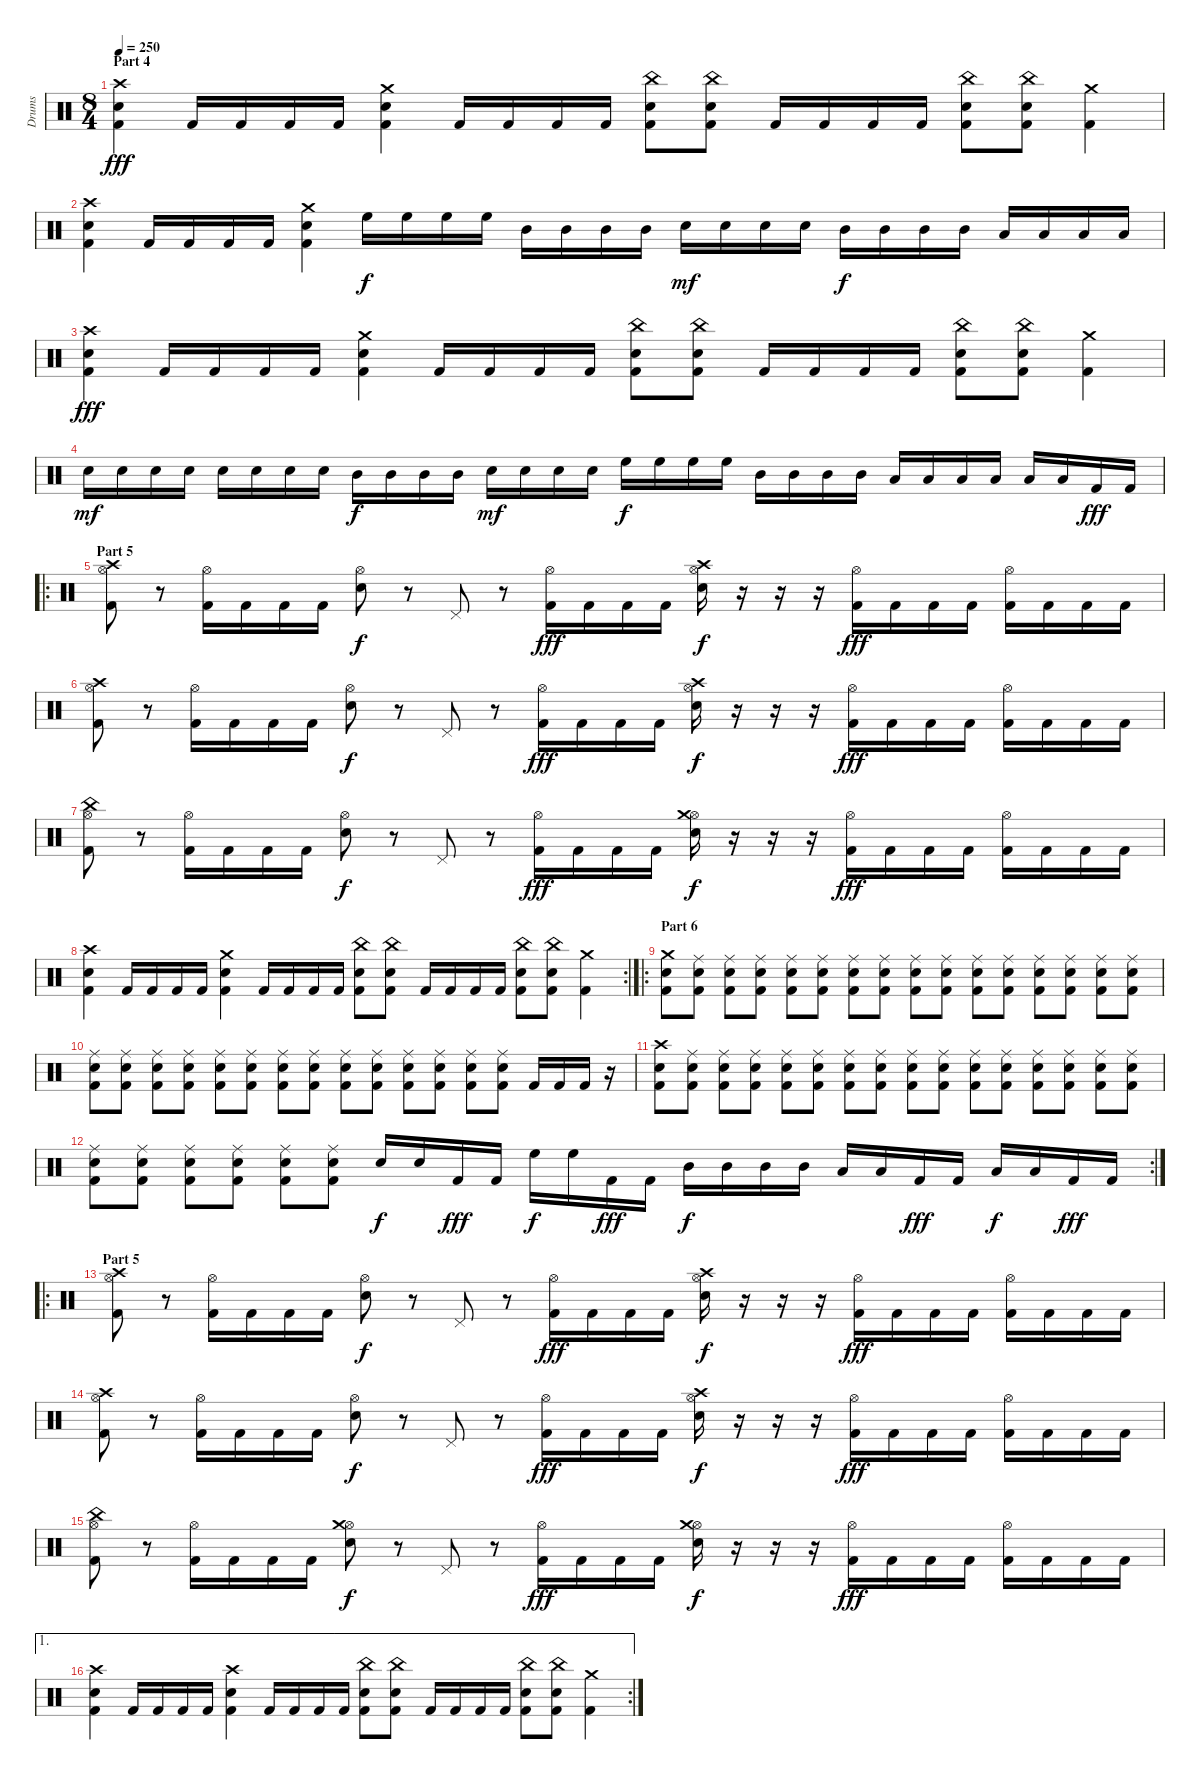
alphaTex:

\track ("Drums" "Drums") {instrument percussion}
\staff {score}
\articulation defaults
\ts (8 4)
\section ("" "Part 4")
\tempo 250
\clef neutral
\ks c
("Crash high (hit)" "Electric Snare (hit)" "Kick (hit) 2").4{dy fff} "Kick (hit) 2".16 "Kick (hit) 2".16 "Kick (hit) 2".16 "Kick (hit) 2".16 ("Crash medium (hit)" "Electric Snare (hit)" "Kick (hit) 2").4 "Kick (hit) 2".16 "Kick (hit) 2".16 "Kick (hit) 2".16 "Kick (hit) 2".16 ("China (hit)" "Electric Snare (hit)" "Kick (hit) 2").8 ("China (hit)" "Electric Snare (hit)" "Kick (hit) 2").8 "Kick (hit) 2".16 "Kick (hit) 2".16 "Kick (hit) 2".16 "Kick (hit) 2".16 ("China (hit)" "Electric Snare (hit)" "Kick (hit) 2").8 ("China (hit)" "Electric Snare (hit)" "Kick (hit) 2").8 ("Crash medium (hit)" "Kick (hit) 2").4 |
("Crash high (hit)" "Electric Snare (hit)" "Kick (hit) 2").4 "Kick (hit) 2".16 "Kick (hit) 2".16 "Kick (hit) 2".16 "Kick (hit) 2".16 ("Crash medium (hit)" "Electric Snare (hit)" "Kick (hit) 2").4 "High Floor Tom (hit)".16{dy f} "High Floor Tom (hit)".16 "High Floor Tom (hit)".16 "High Floor Tom (hit)".16 "Mid Tom (hit)".16 "Mid Tom (hit)".16 "Mid Tom (hit)".16 "Mid Tom (hit)".16 "Electric Snare (hit)".16{dy mf} "Electric Snare (hit)".16 "Electric Snare (hit)".16 "Electric Snare (hit)".16 "Mid Tom (hit)".16{dy f} "Mid Tom (hit)".16 "Mid Tom (hit)".16 "Mid Tom (hit)".16 "Low Tom (hit)".16 "Low Tom (hit)".16 "Low Tom (hit)".16 "Low Tom (hit)".16 |
("Crash high (hit)" "Electric Snare (hit)" "Kick (hit) 2").4{dy fff} "Kick (hit) 2".16 "Kick (hit) 2".16 "Kick (hit) 2".16 "Kick (hit) 2".16 ("Crash medium (hit)" "Electric Snare (hit)" "Kick (hit) 2").4 "Kick (hit) 2".16 "Kick (hit) 2".16 "Kick (hit) 2".16 "Kick (hit) 2".16 ("China (hit)" "Electric Snare (hit)" "Kick (hit) 2").8 ("China (hit)" "Electric Snare (hit)" "Kick (hit) 2").8 "Kick (hit) 2".16 "Kick (hit) 2".16 "Kick (hit) 2".16 "Kick (hit) 2".16 ("China (hit)" "Electric Snare (hit)" "Kick (hit) 2").8 ("China (hit)" "Electric Snare (hit)" "Kick (hit) 2").8 ("Crash medium (hit)" "Kick (hit) 2").4 |
"Electric Snare (hit)".16{dy mf} "Electric Snare (hit)".16 "Electric Snare (hit)".16 "Electric Snare (hit)".16 "Electric Snare (hit)".16 "Electric Snare (hit)".16 "Electric Snare (hit)".16 "Electric Snare (hit)".16 "Mid Tom (hit)".16{dy f} "Mid Tom (hit)".16 "Mid Tom (hit)".16 "Mid Tom (hit)".16 "Electric Snare (hit)".16{dy mf} "Electric Snare (hit)".16 "Electric Snare (hit)".16 "Electric Snare (hit)".16 "High Floor Tom (hit)".16{dy f} "High Floor Tom (hit)".16 "High Floor Tom (hit)".16 "High Floor Tom (hit)".16 "Mid Tom (hit)".16 "Mid Tom (hit)".16 "Mid Tom (hit)".16 "Mid Tom (hit)".16 "Low Tom (hit)".16 "Low Tom (hit)".16 "Low Tom (hit)".16 "Low Tom (hit)".16 "Low Tom (hit)".16 "Low Tom (hit)".16 "Kick (hit) 2".16{dy fff} "Kick (hit) 2".16 |
\ro
\section ("" "Part 5")
("Crash high (hit)" "Hi-Hat (open)" "Kick (hit) 2").8 r.8 ("Hi-Hat (open)" "Kick (hit) 2").16 "Kick (hit) 2".16 "Kick (hit) 2".16 "Kick (hit) 2".16 ("Hi-Hat (open)" "Electric Snare (hit)").8{dy f} r.8 "Pedal Hi-Hat (hit)".8 r.8 ("Hi-Hat (open)" "Kick (hit) 2").16{dy fff} "Kick (hit) 2".16 "Kick (hit) 2".16 "Kick (hit) 2".16 ("Hi-Hat (open)" "Crash high (hit)" "Electric Snare (hit)").16{dy f} r.16 r.16 r.16 ("Hi-Hat (open)" "Kick (hit) 2").16{dy fff} "Kick (hit) 2".16 "Kick (hit) 2".16 "Kick (hit) 2".16 ("Hi-Hat (open)" "Kick (hit) 2").16 "Kick (hit) 2".16 "Kick (hit) 2".16 "Kick (hit) 2".16 |
("Crash high (hit)" "Hi-Hat (open)" "Kick (hit) 2").8 r.8 ("Hi-Hat (open)" "Kick (hit) 2").16 "Kick (hit) 2".16 "Kick (hit) 2".16 "Kick (hit) 2".16 ("Hi-Hat (open)" "Electric Snare (hit)").8{dy f} r.8 "Pedal Hi-Hat (hit)".8 r.8 ("Hi-Hat (open)" "Kick (hit) 2").16{dy fff} "Kick (hit) 2".16 "Kick (hit) 2".16 "Kick (hit) 2".16 ("Hi-Hat (open)" "Crash high (hit)" "Electric Snare (hit)").16{dy f} r.16 r.16 r.16 ("Hi-Hat (open)" "Kick (hit) 2").16{dy fff} "Kick (hit) 2".16 "Kick (hit) 2".16 "Kick (hit) 2".16 ("Hi-Hat (open)" "Kick (hit) 2").16 "Kick (hit) 2".16 "Kick (hit) 2".16 "Kick (hit) 2".16 |
("Hi-Hat (open)" "China (hit)" "Kick (hit) 2").8 r.8 ("Hi-Hat (open)" "Kick (hit) 2").16 "Kick (hit) 2".16 "Kick (hit) 2".16 "Kick (hit) 2".16 ("Hi-Hat (open)" "Electric Snare (hit)").8{dy f} r.8 "Pedal Hi-Hat (hit)".8 r.8 ("Hi-Hat (open)" "Kick (hit) 2").16{dy fff} "Kick (hit) 2".16 "Kick (hit) 2".16 "Kick (hit) 2".16 ("Hi-Hat (open)" "Crash medium (hit)" "Electric Snare (hit)").16{dy f} r.16 r.16 r.16 ("Hi-Hat (open)" "Kick (hit) 2").16{dy fff} "Kick (hit) 2".16 "Kick (hit) 2".16 "Kick (hit) 2".16 ("Hi-Hat (open)" "Kick (hit) 2").16 "Kick (hit) 2".16 "Kick (hit) 2".16 "Kick (hit) 2".16 |
\rc 2
("Crash high (hit)" "Electric Snare (hit)" "Kick (hit) 2").4 "Kick (hit) 2".16 "Kick (hit) 2".16 "Kick (hit) 2".16 "Kick (hit) 2".16 ("Crash medium (hit)" "Electric Snare (hit)" "Kick (hit) 2").4 "Kick (hit) 2".16 "Kick (hit) 2".16 "Kick (hit) 2".16 "Kick (hit) 2".16 ("China (hit)" "Electric Snare (hit)" "Kick (hit) 2").8 ("China (hit)" "Electric Snare (hit)" "Kick (hit) 2").8 "Kick (hit) 2".16 "Kick (hit) 2".16 "Kick (hit) 2".16 "Kick (hit) 2".16 ("China (hit)" "Electric Snare (hit)" "Kick (hit) 2").8 ("China (hit)" "Electric Snare (hit)" "Kick (hit) 2").8 ("Crash medium (hit)" "Kick (hit) 2").4 |
\ro
\section ("" "Part 6")
("Crash medium (hit)" "Electric Snare (hit)" "Kick (hit) 2").8 ("Ride (middle)" "Electric Snare (hit)" "Kick (hit) 2").8 ("Ride (middle)" "Electric Snare (hit)" "Kick (hit) 2").8 ("Ride (middle)" "Electric Snare (hit)" "Kick (hit) 2").8 ("Ride (middle)" "Electric Snare (hit)" "Kick (hit) 2").8 ("Ride (middle)" "Electric Snare (hit)" "Kick (hit) 2").8 ("Ride (middle)" "Electric Snare (hit)" "Kick (hit) 2").8 ("Ride (middle)" "Electric Snare (hit)" "Kick (hit) 2").8 ("Ride (middle)" "Electric Snare (hit)" "Kick (hit) 2").8 ("Ride (middle)" "Electric Snare (hit)" "Kick (hit) 2").8 ("Ride (middle)" "Electric Snare (hit)" "Kick (hit) 2").8 ("Ride (middle)" "Electric Snare (hit)" "Kick (hit) 2").8 ("Ride (middle)" "Electric Snare (hit)" "Kick (hit) 2").8 ("Ride (middle)" "Electric Snare (hit)" "Kick (hit) 2").8 ("Ride (middle)" "Electric Snare (hit)" "Kick (hit) 2").8 ("Ride (middle)" "Electric Snare (hit)" "Kick (hit) 2").8 |
("Ride (middle)" "Electric Snare (hit)" "Kick (hit) 2").8 ("Ride (middle)" "Electric Snare (hit)" "Kick (hit) 2").8 ("Ride (middle)" "Electric Snare (hit)" "Kick (hit) 2").8 ("Ride (middle)" "Electric Snare (hit)" "Kick (hit) 2").8 ("Ride (middle)" "Electric Snare (hit)" "Kick (hit) 2").8 ("Ride (middle)" "Electric Snare (hit)" "Kick (hit) 2").8 ("Ride (middle)" "Electric Snare (hit)" "Kick (hit) 2").8 ("Ride (middle)" "Electric Snare (hit)" "Kick (hit) 2").8 ("Ride (middle)" "Electric Snare (hit)" "Kick (hit) 2").8 ("Ride (middle)" "Electric Snare (hit)" "Kick (hit) 2").8 ("Ride (middle)" "Electric Snare (hit)" "Kick (hit) 2").8 ("Ride (middle)" "Electric Snare (hit)" "Kick (hit) 2").8 ("Ride (middle)" "Electric Snare (hit)" "Kick (hit) 2").8 ("Ride (middle)" "Electric Snare (hit)" "Kick (hit) 2").8 "Kick (hit) 2".16 "Kick (hit) 2".16 "Kick (hit) 2".16 r.16 |
("Crash high (hit)" "Electric Snare (hit)" "Kick (hit) 2").8 ("Ride (middle)" "Electric Snare (hit)" "Kick (hit) 2").8 ("Ride (middle)" "Electric Snare (hit)" "Kick (hit) 2").8 ("Ride (middle)" "Electric Snare (hit)" "Kick (hit) 2").8 ("Ride (middle)" "Electric Snare (hit)" "Kick (hit) 2").8 ("Ride (middle)" "Electric Snare (hit)" "Kick (hit) 2").8 ("Ride (middle)" "Electric Snare (hit)" "Kick (hit) 2").8 ("Ride (middle)" "Electric Snare (hit)" "Kick (hit) 2").8 ("Ride (middle)" "Electric Snare (hit)" "Kick (hit) 2").8 ("Ride (middle)" "Electric Snare (hit)" "Kick (hit) 2").8 ("Ride (middle)" "Electric Snare (hit)" "Kick (hit) 2").8 ("Ride (middle)" "Electric Snare (hit)" "Kick (hit) 2").8 ("Ride (middle)" "Electric Snare (hit)" "Kick (hit) 2").8 ("Ride (middle)" "Electric Snare (hit)" "Kick (hit) 2").8 ("Ride (middle)" "Electric Snare (hit)" "Kick (hit) 2").8 ("Ride (middle)" "Electric Snare (hit)" "Kick (hit) 2").8 |
\rc 2
("Ride (middle)" "Electric Snare (hit)" "Kick (hit) 2").8 ("Ride (middle)" "Electric Snare (hit)" "Kick (hit) 2").8 ("Ride (middle)" "Electric Snare (hit)" "Kick (hit) 2").8 ("Ride (middle)" "Electric Snare (hit)" "Kick (hit) 2").8 ("Ride (middle)" "Electric Snare (hit)" "Kick (hit) 2").8 ("Ride (middle)" "Electric Snare (hit)" "Kick (hit) 2").8 "Electric Snare (hit)".16{dy f} "Electric Snare (hit)".16 "Kick (hit) 2".16{dy fff} "Kick (hit) 2".16 "High Floor Tom (hit)".16{dy f} "High Floor Tom (hit)".16 "Kick (hit) 2".16{dy fff} "Kick (hit) 2".16 "Mid Tom (hit)".16{dy f} "Mid Tom (hit)".16 "Mid Tom (hit)".16 "Mid Tom (hit)".16 "Low Tom (hit)".16 "Low Tom (hit)".16 "Kick (hit) 2".16{dy fff} "Kick (hit) 2".16 "Low Tom (hit)".16{dy f} "Low Tom (hit)".16 "Kick (hit) 2".16{dy fff} "Kick (hit) 2".16 |
\ro
\section ("" "Part 5")
("Crash high (hit)" "Hi-Hat (open)" "Kick (hit) 2").8 r.8 ("Hi-Hat (open)" "Kick (hit) 2").16 "Kick (hit) 2".16 "Kick (hit) 2".16 "Kick (hit) 2".16 ("Hi-Hat (open)" "Electric Snare (hit)").8{dy f} r.8 "Pedal Hi-Hat (hit)".8 r.8 ("Hi-Hat (open)" "Kick (hit) 2").16{dy fff} "Kick (hit) 2".16 "Kick (hit) 2".16 "Kick (hit) 2".16 ("Hi-Hat (open)" "Crash high (hit)" "Electric Snare (hit)").16{dy f} r.16 r.16 r.16 ("Hi-Hat (open)" "Kick (hit) 2").16{dy fff} "Kick (hit) 2".16 "Kick (hit) 2".16 "Kick (hit) 2".16 ("Hi-Hat (open)" "Kick (hit) 2").16 "Kick (hit) 2".16 "Kick (hit) 2".16 "Kick (hit) 2".16 |
\section ("" "")
("Crash high (hit)" "Hi-Hat (open)" "Kick (hit) 2").8 r.8 ("Hi-Hat (open)" "Kick (hit) 2").16 "Kick (hit) 2".16 "Kick (hit) 2".16 "Kick (hit) 2".16 ("Hi-Hat (open)" "Electric Snare (hit)").8{dy f} r.8 "Pedal Hi-Hat (hit)".8 r.8 ("Hi-Hat (open)" "Kick (hit) 2").16{dy fff} "Kick (hit) 2".16 "Kick (hit) 2".16 "Kick (hit) 2".16 ("Hi-Hat (open)" "Crash high (hit)" "Electric Snare (hit)").16{dy f} r.16 r.16 r.16 ("Hi-Hat (open)" "Kick (hit) 2").16{dy fff} "Kick (hit) 2".16 "Kick (hit) 2".16 "Kick (hit) 2".16 ("Hi-Hat (open)" "Kick (hit) 2").16 "Kick (hit) 2".16 "Kick (hit) 2".16 "Kick (hit) 2".16 |
("Hi-Hat (open)" "China (hit)" "Kick (hit) 2").8 r.8 ("Hi-Hat (open)" "Kick (hit) 2").16 "Kick (hit) 2".16 "Kick (hit) 2".16 "Kick (hit) 2".16 ("Hi-Hat (open)" "Crash medium (hit)" "Electric Snare (hit)").8{dy f} r.8 "Pedal Hi-Hat (hit)".8 r.8 ("Hi-Hat (open)" "Kick (hit) 2").16{dy fff} "Kick (hit) 2".16 "Kick (hit) 2".16 "Kick (hit) 2".16 ("Hi-Hat (open)" "Crash medium (hit)" "Electric Snare (hit)").16{dy f} r.16 r.16 r.16 ("Hi-Hat (open)" "Kick (hit) 2").16{dy fff} "Kick (hit) 2".16 "Kick (hit) 2".16 "Kick (hit) 2".16 ("Hi-Hat (open)" "Kick (hit) 2").16 "Kick (hit) 2".16 "Kick (hit) 2".16 "Kick (hit) 2".16 |
\ae 1
\rc 2
("Crash high (hit)" "Electric Snare (hit)" "Kick (hit) 2").4 "Kick (hit) 2".16 "Kick (hit) 2".16 "Kick (hit) 2".16 "Kick (hit) 2".16 ("Crash high (hit)" "Electric Snare (hit)" "Kick (hit) 2").4 "Kick (hit) 2".16 "Kick (hit) 2".16 "Kick (hit) 2".16 "Kick (hit) 2".16 ("China (hit)" "Electric Snare (hit)" "Kick (hit) 2").8 ("China (hit)" "Electric Snare (hit)" "Kick (hit) 2").8 "Kick (hit) 2".16 "Kick (hit) 2".16 "Kick (hit) 2".16 "Kick (hit) 2".16 ("China (hit)" "Electric Snare (hit)" "Kick (hit) 2").8 ("China (hit)" "Electric Snare (hit)" "Kick (hit) 2").8 ("Crash medium (hit)" "Kick (hit) 2").4
